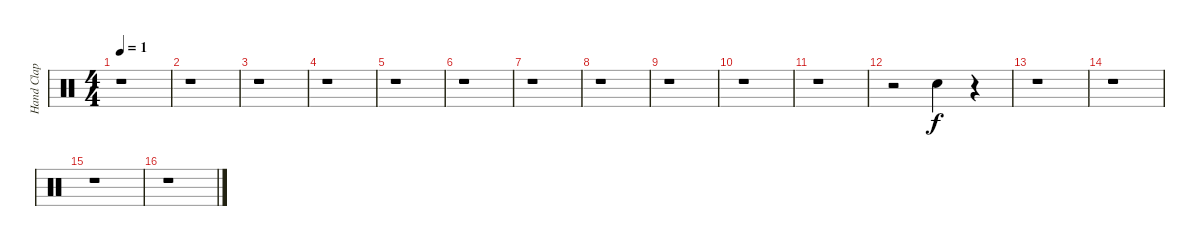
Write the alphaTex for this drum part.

\track ("Hand Clap" "Hand Clap") {instrument percussion}
\staff {score}
\articulation defaults
\ts (4 4)
\tempo 1
\clef neutral
\ks c
r.1{dy f} |
r.1 |
r.1 |
r.1 |
r.1 |
r.1 |
r.1 |
r.1 |
r.1 |
r.1 |
r.1 |
r.2 "Hand Clap (hit)".4 r.4 |
r.1 |
r.1 |
r.1 |
r.1
